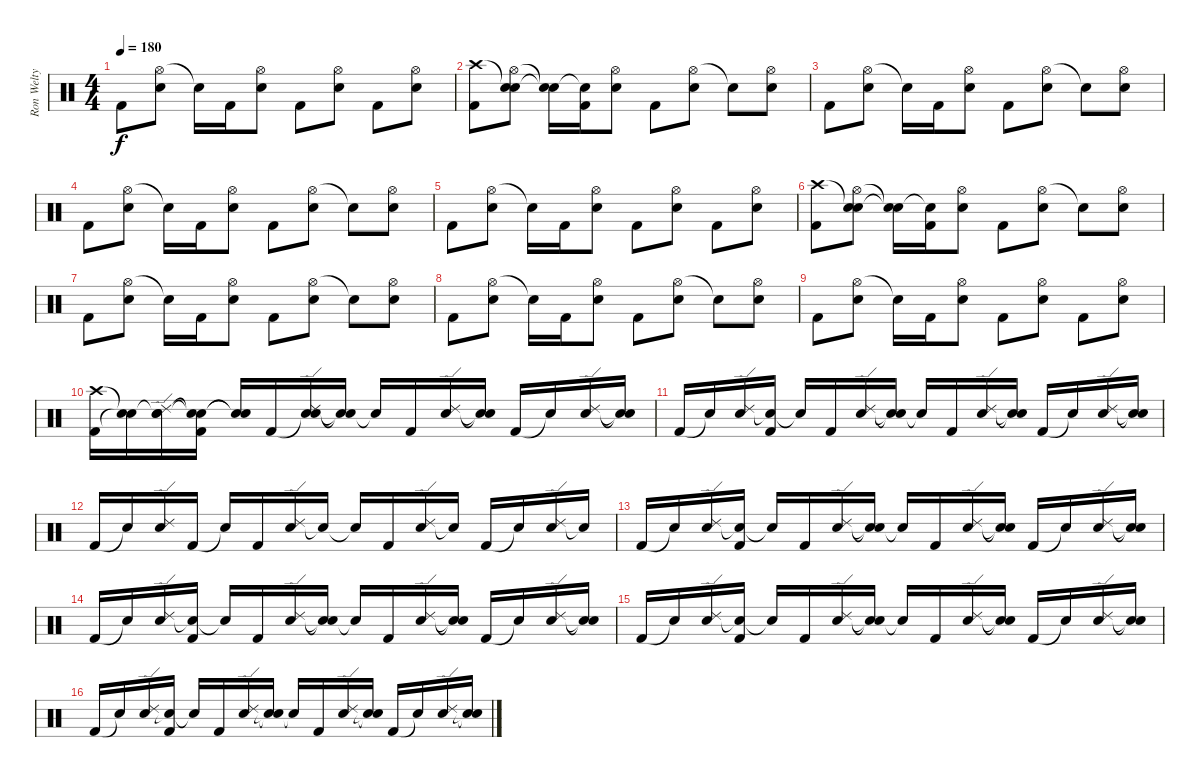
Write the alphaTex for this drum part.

\track ("Ron Welty (drums)" "Ron Welty ") {instrument percussion}
\staff {score}
\articulation defaults
\ts (4 4)
\tempo 180
\clef neutral
\ks c "Kick (hit) 2".8{dy f}
("Hi-Hat (open)" "Electric Snare (hit)").8 "Snare (hit)"{t}.16 "Kick (hit) 2".16 ("Hi-Hat (open)" "Electric Snare (hit)").8 "Kick (hit) 2".8 ("Hi-Hat (open)" "Electric Snare (hit)").8 "Kick (hit) 2".8 ("Hi-Hat (open)" "Electric Snare (hit)").8 |
("Crash high (hit)" "Kick (hit) 2").8 ("Snare (hit)"{t} "Hi-Hat (open)" "Electric Snare (hit)").8 ("Snare (hit)"{t} "Snare (hit)"{t}).16 ("Snare (hit)"{t} "Kick (hit) 2").16 ("Hi-Hat (open)" "Electric Snare (hit)").8 "Kick (hit) 2".8 ("Hi-Hat (open)" "Electric Snare (hit)").8 "Snare (hit)"{t}.8 ("Hi-Hat (open)" "Electric Snare (hit)").8 |
"Kick (hit) 2".8 ("Hi-Hat (open)" "Electric Snare (hit)").8 "Snare (hit)"{t}.16 "Kick (hit) 2".16 ("Hi-Hat (open)" "Electric Snare (hit)").8 "Kick (hit) 2".8 ("Hi-Hat (open)" "Electric Snare (hit)").8 "Snare (hit)"{t}.8 ("Hi-Hat (open)" "Electric Snare (hit)").8 |
"Kick (hit) 2".8 ("Hi-Hat (open)" "Electric Snare (hit)").8 "Snare (hit)"{t}.16 "Kick (hit) 2".16 ("Hi-Hat (open)" "Electric Snare (hit)").8 "Kick (hit) 2".8 ("Hi-Hat (open)" "Electric Snare (hit)").8 "Snare (hit)"{t}.8 ("Hi-Hat (open)" "Electric Snare (hit)").8 |
"Kick (hit) 2".8 ("Hi-Hat (open)" "Electric Snare (hit)").8 "Snare (hit)"{t}.16 "Kick (hit) 2".16 ("Hi-Hat (open)" "Electric Snare (hit)").8 "Kick (hit) 2".8 ("Hi-Hat (open)" "Electric Snare (hit)").8 "Kick (hit) 2".8 ("Hi-Hat (open)" "Electric Snare (hit)").8 |
("Crash high (hit)" "Kick (hit) 2").8 ("Snare (hit)"{t} "Hi-Hat (open)" "Electric Snare (hit)").8 ("Snare (hit)"{t} "Snare (hit)"{t}).16 ("Snare (hit)"{t} "Kick (hit) 2").16 ("Hi-Hat (open)" "Electric Snare (hit)").8 "Kick (hit) 2".8 ("Hi-Hat (open)" "Electric Snare (hit)").8 "Snare (hit)"{t}.8 ("Hi-Hat (open)" "Electric Snare (hit)").8 |
"Kick (hit) 2".8 ("Hi-Hat (open)" "Electric Snare (hit)").8 "Snare (hit)"{t}.16 "Kick (hit) 2".16 ("Hi-Hat (open)" "Electric Snare (hit)").8 "Kick (hit) 2".8 ("Hi-Hat (open)" "Electric Snare (hit)").8 "Snare (hit)"{t}.8 ("Hi-Hat (open)" "Electric Snare (hit)").8 |
"Kick (hit) 2".8 ("Hi-Hat (open)" "Electric Snare (hit)").8 "Snare (hit)"{t}.16 "Kick (hit) 2".16 ("Hi-Hat (open)" "Electric Snare (hit)").8 "Kick (hit) 2".8 ("Hi-Hat (open)" "Electric Snare (hit)").8 "Snare (hit)"{t}.8 ("Hi-Hat (open)" "Electric Snare (hit)").8 |
"Kick (hit) 2".8 ("Hi-Hat (open)" "Electric Snare (hit)").8 "Snare (hit)"{t}.16 "Kick (hit) 2".16 ("Hi-Hat (open)" "Electric Snare (hit)").8 "Kick (hit) 2".8 ("Hi-Hat (open)" "Electric Snare (hit)").8 "Kick (hit) 2".8 ("Hi-Hat (open)" "Electric Snare (hit)").8 |
("Crash high (hit)" "Kick (hit) 2").16 ("Snare (hit)"{t} "Snare (hit)"{t}).16 ("Snare (hit)"{t} "Ride (edge) 2" "Electric Snare (hit)").16 ("Snare (hit)"{t} "Snare (hit)"{t} "Kick (hit) 2").16 ("Snare (hit)"{t} "Snare (hit)"{t}).16 "Kick (hit) 2".16 ("Snare (hit)"{t} "Ride (edge) 2" "Electric Snare (hit)").16 ("Snare (hit)"{t} "Snare (hit)"{t}).16 "Snare (hit)"{t}.16 "Kick (hit) 2".16 ("Ride (edge) 2" "Electric Snare (hit)").16 ("Snare (hit)"{t} "Snare (hit)"{t}).16 "Kick (hit) 2".16 "Snare (hit)"{t}.16 ("Ride (edge) 2" "Electric Snare (hit)").16 ("Snare (hit)"{t} "Snare (hit)"{t}).16 |
"Kick (hit) 2".16 "Snare (hit)"{t}.16 ("Ride (edge) 2" "Electric Snare (hit)").16 ("Snare (hit)"{t} "Kick (hit) 2").16 "Snare (hit)"{t}.16 "Kick (hit) 2".16 ("Ride (edge) 2" "Electric Snare (hit)").16 ("Snare (hit)"{t} "Snare (hit)"{t}).16 "Snare (hit)"{t}.16 "Kick (hit) 2".16 ("Ride (edge) 2" "Electric Snare (hit)").16 ("Snare (hit)"{t} "Snare (hit)"{t}).16 "Kick (hit) 2".16 "Snare (hit)"{t}.16 ("Ride (edge) 2" "Electric Snare (hit)").16 ("Snare (hit)"{t} "Snare (hit)"{t}).16 |
"Kick (hit) 2".16 "Snare (hit)"{t}.16 ("Ride (edge) 2" "Electric Snare (hit)").16 "Kick (hit) 2".16 "Snare (hit)"{t}.16 "Kick (hit) 2".16 ("Ride (edge) 2" "Electric Snare (hit)").16 "Snare (hit)"{t}.16 "Snare (hit)"{t}.16 "Kick (hit) 2".16 ("Ride (edge) 2" "Electric Snare (hit)").16 "Snare (hit)"{t}.16 "Kick (hit) 2".16 "Snare (hit)"{t}.16 ("Ride (edge) 2" "Electric Snare (hit)").16 "Snare (hit)"{t}.16 |
"Kick (hit) 2".16 "Snare (hit)"{t}.16 ("Ride (edge) 2" "Electric Snare (hit)").16 ("Snare (hit)"{t} "Kick (hit) 2").16 "Snare (hit)"{t}.16 "Kick (hit) 2".16 ("Ride (edge) 2" "Electric Snare (hit)").16 ("Snare (hit)"{t} "Snare (hit)"{t}).16 "Snare (hit)"{t}.16 "Kick (hit) 2".16 ("Ride (edge) 2" "Electric Snare (hit)").16 ("Snare (hit)"{t} "Snare (hit)"{t}).16 "Kick (hit) 2".16 "Snare (hit)"{t}.16 ("Ride (edge) 2" "Electric Snare (hit)").16 ("Snare (hit)"{t} "Snare (hit)"{t}).16 |
"Kick (hit) 2".16 "Snare (hit)"{t}.16 ("Ride (edge) 2" "Electric Snare (hit)").16 ("Snare (hit)"{t} "Kick (hit) 2").16 "Snare (hit)"{t}.16 "Kick (hit) 2".16 ("Ride (edge) 2" "Electric Snare (hit)").16 ("Snare (hit)"{t} "Snare (hit)"{t}).16 "Snare (hit)"{t}.16 "Kick (hit) 2".16 ("Ride (edge) 2" "Electric Snare (hit)").16 ("Snare (hit)"{t} "Snare (hit)"{t}).16 "Kick (hit) 2".16 "Snare (hit)"{t}.16 ("Ride (edge) 2" "Electric Snare (hit)").16 ("Snare (hit)"{t} "Snare (hit)"{t}).16 |
"Kick (hit) 2".16 "Snare (hit)"{t}.16 ("Ride (edge) 2" "Electric Snare (hit)").16 ("Snare (hit)"{t} "Kick (hit) 2").16 "Snare (hit)"{t}.16 "Kick (hit) 2".16 ("Ride (edge) 2" "Electric Snare (hit)").16 ("Snare (hit)"{t} "Snare (hit)"{t}).16 "Snare (hit)"{t}.16 "Kick (hit) 2".16 ("Ride (edge) 2" "Electric Snare (hit)").16 ("Snare (hit)"{t} "Snare (hit)"{t}).16 "Kick (hit) 2".16 "Snare (hit)"{t}.16 ("Ride (edge) 2" "Electric Snare (hit)").16 ("Snare (hit)"{t} "Snare (hit)"{t}).16 |
"Kick (hit) 2".16 "Snare (hit)"{t}.16 ("Ride (edge) 2" "Electric Snare (hit)").16 ("Snare (hit)"{t} "Kick (hit) 2").16 "Snare (hit)"{t}.16 "Kick (hit) 2".16 ("Ride (edge) 2" "Electric Snare (hit)").16 ("Snare (hit)"{t} "Snare (hit)"{t}).16 "Snare (hit)"{t}.16 "Kick (hit) 2".16 ("Ride (edge) 2" "Electric Snare (hit)").16 ("Snare (hit)"{t} "Snare (hit)"{t}).16 "Kick (hit) 2".16 "Snare (hit)"{t}.16 ("Ride (edge) 2" "Electric Snare (hit)").16 ("Snare (hit)"{t} "Snare (hit)"{t}).16
